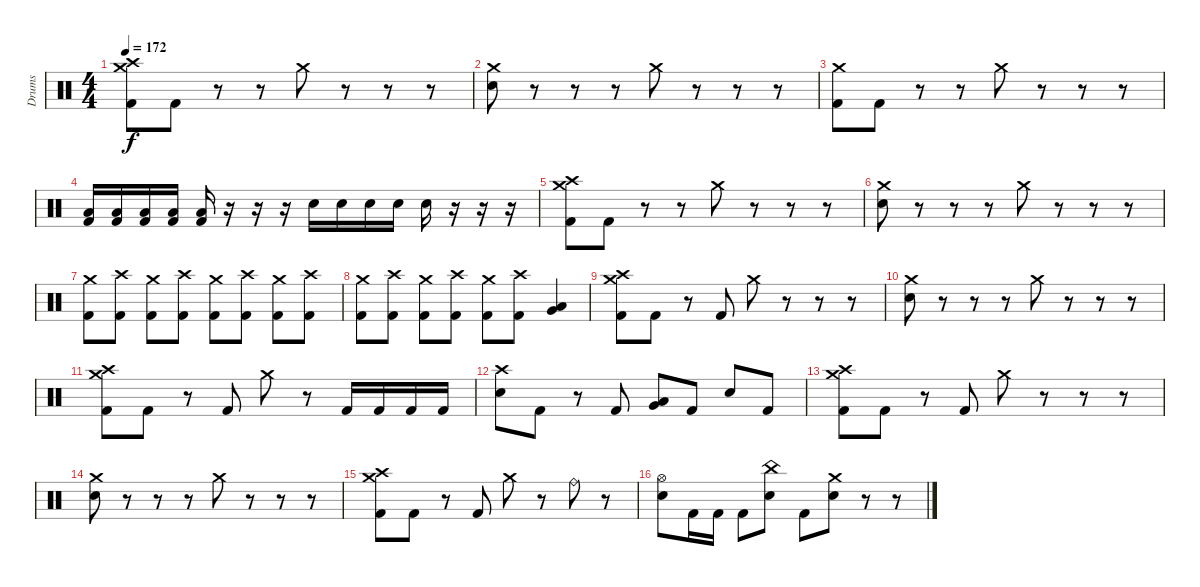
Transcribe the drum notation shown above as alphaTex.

\track ("Drums" "Drums") {instrument percussion}
\staff {score}
\articulation defaults
\ts (4 4)
\tempo 172
\clef neutral
\ks c
("Crash medium (hit)" "Crash high (hit)" "Kick (hit) 2").8{dy f} "Kick (hit) 2".8 r.8 r.8 "Crash medium (hit)".8 r.8 r.8 r.8 |
("Crash medium (hit)" "Electric Snare (hit)").8 r.8 r.8 r.8 "Crash medium (hit)".8 r.8 r.8 r.8 |
("Crash medium (hit)" "Kick (hit) 2").8 "Kick (hit) 2".8 r.8 r.8 "Crash medium (hit)".8 r.8 r.8 r.8 |
("Low Floor Tom (hit)" "Kick (hit) 2").16 ("Low Floor Tom (hit)" "Kick (hit) 2").16 ("Low Floor Tom (hit)" "Kick (hit) 2").16 ("Low Floor Tom (hit)" "Kick (hit) 2").16 ("Low Floor Tom (hit)" "Kick (hit) 2").16 r.16 r.16 r.16 "Electric Snare (hit)".16 "Electric Snare (hit)".16 "Electric Snare (hit)".16 "Electric Snare (hit)".16 "Electric Snare (hit)".16 r.16 r.16 r.16 |
("Crash medium (hit)" "Crash high (hit)" "Kick (hit) 2").8 "Kick (hit) 2".8 r.8 r.8 "Crash medium (hit)".8 r.8 r.8 r.8 |
("Crash medium (hit)" "Electric Snare (hit)").8 r.8 r.8 r.8 "Crash medium (hit)".8 r.8 r.8 r.8 |
("Crash medium (hit)" "Kick (hit) 2").8 ("Crash high (hit)" "Kick (hit) 2").8 ("Crash medium (hit)" "Kick (hit) 2").8 ("Crash high (hit)" "Kick (hit) 2").8 ("Crash medium (hit)" "Kick (hit) 2").8 ("Crash high (hit)" "Kick (hit) 2").8 ("Crash medium (hit)" "Kick (hit) 2").8 ("Crash high (hit)" "Kick (hit) 2").8 |
("Crash medium (hit)" "Kick (hit) 2").8 ("Crash high (hit)" "Kick (hit) 2").8 ("Crash medium (hit)" "Kick (hit) 2").8 ("Crash high (hit)" "Kick (hit) 2").8 ("Crash medium (hit)" "Kick (hit) 2").8 ("Crash high (hit)" "Kick (hit) 2").8 ("Low Floor Tom (hit)" "Very Low Tom (hit)").4 |
("Crash medium (hit)" "Crash high (hit)" "Kick (hit) 2").8 "Kick (hit) 2".8 r.8 "Kick (hit) 2".8 "Crash medium (hit)".8 r.8 r.8 r.8 |
("Crash medium (hit)" "Electric Snare (hit)").8 r.8 r.8 r.8 "Crash medium (hit)".8 r.8 r.8 r.8 |
("Crash medium (hit)" "Crash high (hit)" "Kick (hit) 2").8 "Kick (hit) 2".8 r.8 "Kick (hit) 2".8 "Crash medium (hit)".8 r.8 "Kick (hit) 2".16 "Kick (hit) 2".16 "Kick (hit) 2".16 "Kick (hit) 2".16 |
("Crash high (hit)" "Electric Snare (hit)").8 "Kick (hit) 2".8 r.8 "Kick (hit) 2".8 ("Very Low Tom (hit)" "Low Tom (hit)").8 "Kick (hit) 2".8 "Electric Snare (hit)".8 "Kick (hit) 2".8 |
("Crash medium (hit)" "Crash high (hit)" "Kick (hit) 2").8 "Kick (hit) 2".8 r.8 "Kick (hit) 2".8 "Crash medium (hit)".8 r.8 r.8 r.8 |
("Crash medium (hit)" "Electric Snare (hit)").8 r.8 r.8 r.8 "Crash medium (hit)".8 r.8 r.8 r.8 |
("Crash medium (hit)" "Crash high (hit)" "Kick (hit) 2").8 "Kick (hit) 2".8 r.8 "Kick (hit) 2".8 "Crash medium (hit)".8 r.8 "Ride (bell)".8 r.8 |
("Hi-Hat (open)" "Electric Snare (hit)").8 "Kick (hit) 2".16 "Kick (hit) 2".16 "Kick (hit) 2".8 ("China (hit)" "Electric Snare (hit)").8 "Kick (hit) 2".8 ("Crash medium (hit)" "Electric Snare (hit)").8 r.8 r.8
